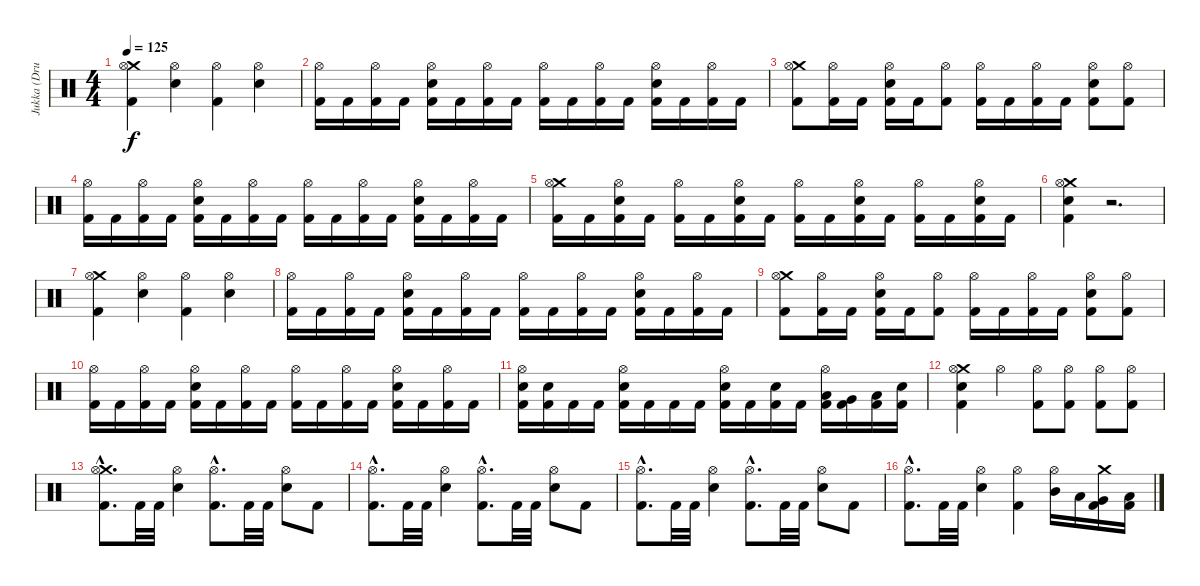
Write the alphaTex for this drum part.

\track ("Jukka (Drums)" "Jukka (Dru") {instrument percussion}
\staff {score}
\articulation defaults
\ts (4 4)
\tempo 125
\clef neutral
\ks c
("Crash medium (hit)" "Hi-Hat (open)" "Kick (hit) 2").4{dy f} ("Hi-Hat (open)" "Electric Snare (hit)").4 ("Hi-Hat (open)" "Kick (hit) 2").4 ("Hi-Hat (open)" "Electric Snare (hit)").4 |
("Hi-Hat (open)" "Kick (hit) 2").16 "Kick (hit) 2".16 ("Hi-Hat (open)" "Kick (hit) 2").16 "Kick (hit) 2".16 ("Hi-Hat (open)" "Electric Snare (hit)" "Kick (hit) 2").16 "Kick (hit) 2".16 ("Hi-Hat (open)" "Kick (hit) 2").16 "Kick (hit) 2".16 ("Hi-Hat (open)" "Kick (hit) 2").16 "Kick (hit) 2".16 ("Hi-Hat (open)" "Kick (hit) 2").16 "Kick (hit) 2".16 ("Hi-Hat (open)" "Electric Snare (hit)" "Kick (hit) 2").16 "Kick (hit) 2".16 ("Hi-Hat (open)" "Kick (hit) 2").16 "Kick (hit) 2".16 |
("Crash medium (hit)" "Hi-Hat (open)" "Kick (hit) 2").8 ("Hi-Hat (open)" "Kick (hit) 2").16 "Kick (hit) 2".16 ("Hi-Hat (open)" "Electric Snare (hit)" "Kick (hit) 2").16 "Kick (hit) 2".16 ("Hi-Hat (open)" "Kick (hit) 2").8 ("Hi-Hat (open)" "Kick (hit) 2").16 "Kick (hit) 2".16 ("Hi-Hat (open)" "Kick (hit) 2").16 "Kick (hit) 2".16 ("Hi-Hat (open)" "Electric Snare (hit)" "Kick (hit) 2").8 ("Hi-Hat (open)" "Kick (hit) 2").8 |
("Hi-Hat (open)" "Kick (hit) 2").16 "Kick (hit) 2".16 ("Hi-Hat (open)" "Kick (hit) 2").16 "Kick (hit) 2".16 ("Hi-Hat (open)" "Electric Snare (hit)" "Kick (hit) 2").16 "Kick (hit) 2".16 ("Hi-Hat (open)" "Kick (hit) 2").16 "Kick (hit) 2".16 ("Hi-Hat (open)" "Kick (hit) 2").16 "Kick (hit) 2".16 ("Hi-Hat (open)" "Kick (hit) 2").16 "Kick (hit) 2".16 ("Hi-Hat (open)" "Electric Snare (hit)" "Kick (hit) 2").16 "Kick (hit) 2".16 ("Hi-Hat (open)" "Kick (hit) 2").16 "Kick (hit) 2".16 |
("Crash medium (hit)" "Hi-Hat (open)" "Kick (hit) 2").16 "Kick (hit) 2".16 ("Hi-Hat (open)" "Electric Snare (hit)" "Kick (hit) 2").16 "Kick (hit) 2".16 ("Hi-Hat (open)" "Kick (hit) 2").16 "Kick (hit) 2".16 ("Hi-Hat (open)" "Electric Snare (hit)" "Kick (hit) 2").16 "Kick (hit) 2".16 ("Hi-Hat (open)" "Kick (hit) 2").16 "Kick (hit) 2".16 ("Hi-Hat (open)" "Electric Snare (hit)" "Kick (hit) 2").16 "Kick (hit) 2".16 ("Hi-Hat (open)" "Kick (hit) 2").16 "Kick (hit) 2".16 ("Hi-Hat (open)" "Electric Snare (hit)" "Kick (hit) 2").16 "Kick (hit) 2".16 |
("Crash medium (hit)" "Hi-Hat (open)" "Electric Snare (hit)" "Kick (hit) 2").4 r.2{d} |
("Crash medium (hit)" "Hi-Hat (open)" "Kick (hit) 2").4 ("Hi-Hat (open)" "Electric Snare (hit)").4 ("Hi-Hat (open)" "Kick (hit) 2").4 ("Hi-Hat (open)" "Electric Snare (hit)").4 |
("Hi-Hat (open)" "Kick (hit) 2").16 "Kick (hit) 2".16 ("Hi-Hat (open)" "Kick (hit) 2").16 "Kick (hit) 2".16 ("Hi-Hat (open)" "Electric Snare (hit)" "Kick (hit) 2").16 "Kick (hit) 2".16 ("Hi-Hat (open)" "Kick (hit) 2").16 "Kick (hit) 2".16 ("Hi-Hat (open)" "Kick (hit) 2").16 "Kick (hit) 2".16 ("Hi-Hat (open)" "Kick (hit) 2").16 "Kick (hit) 2".16 ("Hi-Hat (open)" "Electric Snare (hit)" "Kick (hit) 2").16 "Kick (hit) 2".16 ("Hi-Hat (open)" "Kick (hit) 2").16 "Kick (hit) 2".16 |
("Crash medium (hit)" "Hi-Hat (open)" "Kick (hit) 2").8 ("Hi-Hat (open)" "Kick (hit) 2").16 "Kick (hit) 2".16 ("Hi-Hat (open)" "Electric Snare (hit)" "Kick (hit) 2").16 "Kick (hit) 2".16 ("Hi-Hat (open)" "Kick (hit) 2").8 ("Hi-Hat (open)" "Kick (hit) 2").16 "Kick (hit) 2".16 ("Hi-Hat (open)" "Kick (hit) 2").16 "Kick (hit) 2".16 ("Hi-Hat (open)" "Electric Snare (hit)" "Kick (hit) 2").8 ("Hi-Hat (open)" "Kick (hit) 2").8 |
("Hi-Hat (open)" "Kick (hit) 2").16 "Kick (hit) 2".16 ("Hi-Hat (open)" "Kick (hit) 2").16 "Kick (hit) 2".16 ("Hi-Hat (open)" "Electric Snare (hit)" "Kick (hit) 2").16 "Kick (hit) 2".16 ("Hi-Hat (open)" "Kick (hit) 2").16 "Kick (hit) 2".16 ("Hi-Hat (open)" "Kick (hit) 2").16 "Kick (hit) 2".16 ("Hi-Hat (open)" "Kick (hit) 2").16 "Kick (hit) 2".16 ("Hi-Hat (open)" "Electric Snare (hit)" "Kick (hit) 2").16 "Kick (hit) 2".16 ("Hi-Hat (open)" "Kick (hit) 2").16 "Kick (hit) 2".16 |
("Hi-Hat (open)" "Electric Snare (hit)" "Kick (hit) 2").16 ("Electric Snare (hit)" "Kick (hit) 2").16 "Kick (hit) 2".16 "Kick (hit) 2".16 ("Hi-Hat (open)" "Electric Snare (hit)" "Kick (hit) 2").16 "Kick (hit) 2".16 "Kick (hit) 2".16 "Kick (hit) 2".16 ("Hi-Hat (open)" "Electric Snare (hit)" "Kick (hit) 2").16 "Kick (hit) 2".16 ("Electric Snare (hit)" "Kick (hit) 2").16 "Kick (hit) 2".16 ("Hi-Hat (open)" "Low Tom (hit)" "Kick (hit) 2").16 ("Very Low Tom (hit)" "Kick (hit) 2").16 ("Low Floor Tom (hit)" "Kick (hit) 2").16 ("Electric Snare (hit)" "Kick (hit) 2").16 |
("Crash medium (hit)" "Hi-Hat (open)" "Electric Snare (hit)" "Kick (hit) 2").4 "Hi-Hat (open)".4 ("Hi-Hat (open)" "Kick (hit) 2").8 ("Hi-Hat (open)" "Kick (hit) 2").8 ("Hi-Hat (open)" "Kick (hit) 2").8 ("Hi-Hat (open)" "Kick (hit) 2").8 |
("Crash medium (hit)" "Hi-Hat (open)" "Kick (hit) 2"{hac}).8{d} "Kick (hit) 2".32 "Kick (hit) 2".32 ("Hi-Hat (open)" "Electric Snare (hit)").4 ("Hi-Hat (open)"{hac} "Kick (hit) 2"{hac}).8{d} "Kick (hit) 2".32 "Kick (hit) 2".32 ("Hi-Hat (open)" "Electric Snare (hit)").8 "Kick (hit) 2".8 |
("Hi-Hat (open)"{hac} "Kick (hit) 2"{hac}).8{d} "Kick (hit) 2".32 "Kick (hit) 2".32 ("Hi-Hat (open)" "Electric Snare (hit)").4 ("Hi-Hat (open)"{hac} "Kick (hit) 2"{hac}).8{d} "Kick (hit) 2".32 "Kick (hit) 2".32 ("Hi-Hat (open)" "Electric Snare (hit)").8 "Kick (hit) 2".8 |
("Hi-Hat (open)"{hac} "Kick (hit) 2"{hac}).8{d} "Kick (hit) 2".32 "Kick (hit) 2".32 ("Hi-Hat (open)" "Electric Snare (hit)").4 ("Hi-Hat (open)"{hac} "Kick (hit) 2"{hac}).8{d} "Kick (hit) 2".32 "Kick (hit) 2".32 ("Hi-Hat (open)" "Electric Snare (hit)").8 "Kick (hit) 2".8 |
("Hi-Hat (open)"{hac} "Kick (hit) 2"{hac}).8{d} "Kick (hit) 2".32 "Kick (hit) 2".32 ("Hi-Hat (open)" "Electric Snare (hit)").4 ("Hi-Hat (open)" "Kick (hit) 2").4 ("Hi-Hat (open)" "Mid Tom (hit)").16 "Low Tom (hit)".16 ("Crash medium (hit)" "Very Low Tom (hit)" "Kick (hit) 2").16 ("Low Floor Tom (hit)" "Kick (hit) 2").16
